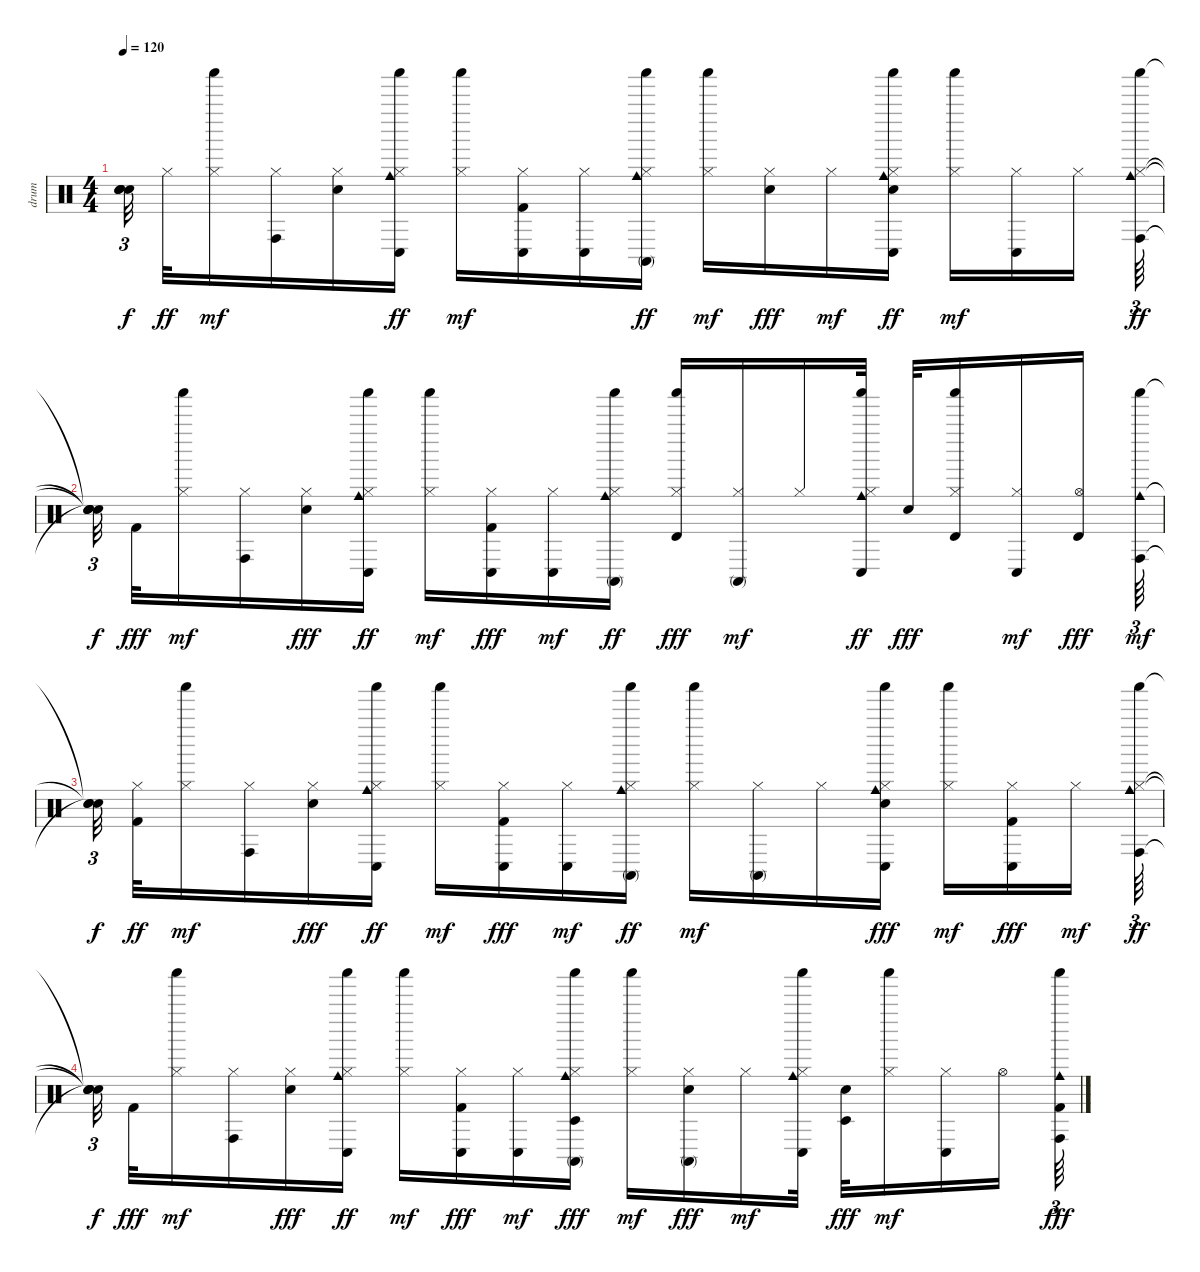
\track ("drum" "drum") {instrument percussion}
\staff {score}
\articulation defaults
\ts (4 4)
\tempo 120
\clef neutral
\ks c
("Snare (hit)"{t} "Snare (hit)"{t} "Snare (hit)"{t} "Snare (hit)"{t}).32{tu (3 2) dy f beam splitsecondary} "Hi-Hat (closed)".32{dy ff} ("Shaker (hit)" "Hi-Hat (closed)").16{dy mf} ("Conga high (hit)" "Hi-Hat (closed)").16 ("Electric Snare (hit)" "Hi-Hat (closed)").16 ("Conga low (hit)" "Cowbell medium (hit)" "Shaker (hit)" "Hi-Hat (closed)").16{dy ff} ("Shaker (hit)" "Hi-Hat (closed)").16{dy mf} ("Conga low (hit)" "Kick (hit) 2" "Hi-Hat (closed)").16 ("Conga low (hit)" "Hi-Hat (closed)").16 ("Conga high (mute)" "Cowbell medium (hit)" "Shaker (hit)" "Hi-Hat (closed)").16{dy ff} ("Shaker (hit)" "Hi-Hat (closed)").16{dy mf} ("Hi-Hat (closed)" "Electric Snare (hit)").16{dy fff} "Hi-Hat (closed)".16{dy mf} ("Conga low (hit)" "Shaker (hit)" "Cowbell medium (hit)" "Electric Snare (hit)" "Hi-Hat (closed)").16{dy ff} ("Shaker (hit)" "Hi-Hat (closed)").16{dy mf} ("Conga low (hit)" "Hi-Hat (closed)").16 "Hi-Hat (closed)".16{beam splitsecondary} ("Conga high (hit)" "Shaker (hit)" "Cowbell medium (hit)" "Hi-Hat (closed)").64{tu (3 2) dy ff} |
("Snare (hit)"{t} "Snare (hit)"{t} "Snare (hit)"{t} "Snare (hit)"{t}).32{tu (3 2) dy f beam splitsecondary} "Kick (hit) 2".32{dy fff} ("Shaker (hit)" "Hi-Hat (closed)").16{dy mf} ("Conga high (hit)" "Hi-Hat (closed)").16 ("Hi-Hat (closed)" "Electric Snare (hit)").16{dy fff} ("Conga low (hit)" "Cowbell medium (hit)" "Shaker (hit)" "Hi-Hat (closed)").16{dy ff} ("Shaker (hit)" "Hi-Hat (closed)").16{dy mf} ("Conga low (hit)" "Hi-Hat (closed)" "Kick (hit) 2").16{dy fff} ("Conga low (hit)" "Hi-Hat (closed)").16{dy mf} ("Conga high (mute)" "Shaker (hit)" "Cowbell medium (hit)" "Hi-Hat (closed)").16{dy ff} ("Shaker (hit)" "Hi-Hat (closed)" "Timbale high (hit)").16{dy fff} ("Conga high (mute)" "Hi-Hat (closed)").16{dy mf} "Hi-Hat (closed)".16 ("Conga low (hit)" "Cowbell medium (hit)" "Shaker (hit)" "Hi-Hat (closed)").32{dy ff} "Electric Snare (hit)".32{dy fff} ("Shaker (hit)" "Hi-Hat (closed)" "Timbale high (hit)").16 ("Conga low (hit)" "Hi-Hat (closed)").16{dy mf} ("Hi-Hat (open)" "Timbale high (hit)").16{dy fff beam splitsecondary} ("Conga high (hit)" "Shaker (hit)" "Cowbell medium (hit)").64{tu (3 2) dy mf} |
("Snare (hit)"{t} "Snare (hit)"{t} "Snare (hit)"{t}).32{tu (3 2) dy f beam splitsecondary} ("Kick (hit) 2" "Hi-Hat (closed)").32{dy ff} ("Shaker (hit)" "Hi-Hat (closed)").16{dy mf} ("Conga high (hit)" "Hi-Hat (closed)").16 ("Hi-Hat (closed)" "Electric Snare (hit)").16{dy fff} ("Conga low (hit)" "Cowbell medium (hit)" "Shaker (hit)" "Hi-Hat (closed)").16{dy ff} ("Shaker (hit)" "Hi-Hat (closed)").16{dy mf} ("Conga low (hit)" "Hi-Hat (closed)" "Kick (hit) 2").16{dy fff} ("Conga low (hit)" "Hi-Hat (closed)").16{dy mf} ("Conga high (mute)" "Cowbell medium (hit)" "Shaker (hit)" "Hi-Hat (closed)").16{dy ff} ("Shaker (hit)" "Hi-Hat (closed)").16{dy mf} ("Conga high (mute)" "Hi-Hat (closed)").16 "Hi-Hat (closed)".16 ("Conga low (hit)" "Cowbell medium (hit)" "Shaker (hit)" "Hi-Hat (closed)" "Electric Snare (hit)").16{dy fff} ("Shaker (hit)" "Hi-Hat (closed)").16{dy mf} ("Conga low (hit)" "Hi-Hat (closed)" "Kick (hit) 2").16{dy fff} "Hi-Hat (closed)".16{dy mf beam splitsecondary} ("Conga high (hit)" "Cowbell medium (hit)" "Shaker (hit)" "Hi-Hat (closed)").64{tu (3 2) dy ff} |
("Snare (hit)"{t} "Snare (hit)"{t} "Snare (hit)"{t} "Snare (hit)"{t}).32{tu (3 2) dy f beam splitsecondary} "Kick (hit) 2".32{dy fff} ("Shaker (hit)" "Hi-Hat (closed)").16{dy mf} ("Conga high (hit)" "Hi-Hat (closed)").16 ("Hi-Hat (closed)" "Electric Snare (hit)").16{dy fff} ("Conga low (hit)" "Shaker (hit)" "Cowbell medium (hit)" "Hi-Hat (closed)").16{dy ff} ("Shaker (hit)" "Hi-Hat (closed)").16{dy mf} ("Conga low (hit)" "Hi-Hat (closed)" "Kick (hit) 2").16{dy fff} ("Hi-Hat (closed)" "Conga low (hit)").16{dy mf} ("Conga high (mute)" "Cowbell medium (hit)" "Shaker (hit)" "Hi-Hat (closed)" "Timbale low (hit)").16{dy fff} ("Shaker (hit)" "Hi-Hat (closed)").16{dy mf} ("Conga high (mute)" "Hi-Hat (closed)" "Electric Snare (hit)").16{dy fff} "Hi-Hat (closed)".16{dy mf} ("Conga low (hit)" "Hi-Hat (closed)" "Shaker (hit)" "Cowbell medium (hit)").32 ("Electric Snare (hit)" "Timbale low (hit)").32{dy fff} ("Shaker (hit)" "Hi-Hat (closed)").16{dy mf} ("Conga low (hit)" "Hi-Hat (closed)").16 "Hi-Hat (open)".16{beam splitsecondary} ("Conga high (hit)" "Shaker (hit)" "Cowbell medium (hit)" "Kick (hit) 2").64{tu (3 2) dy fff}
